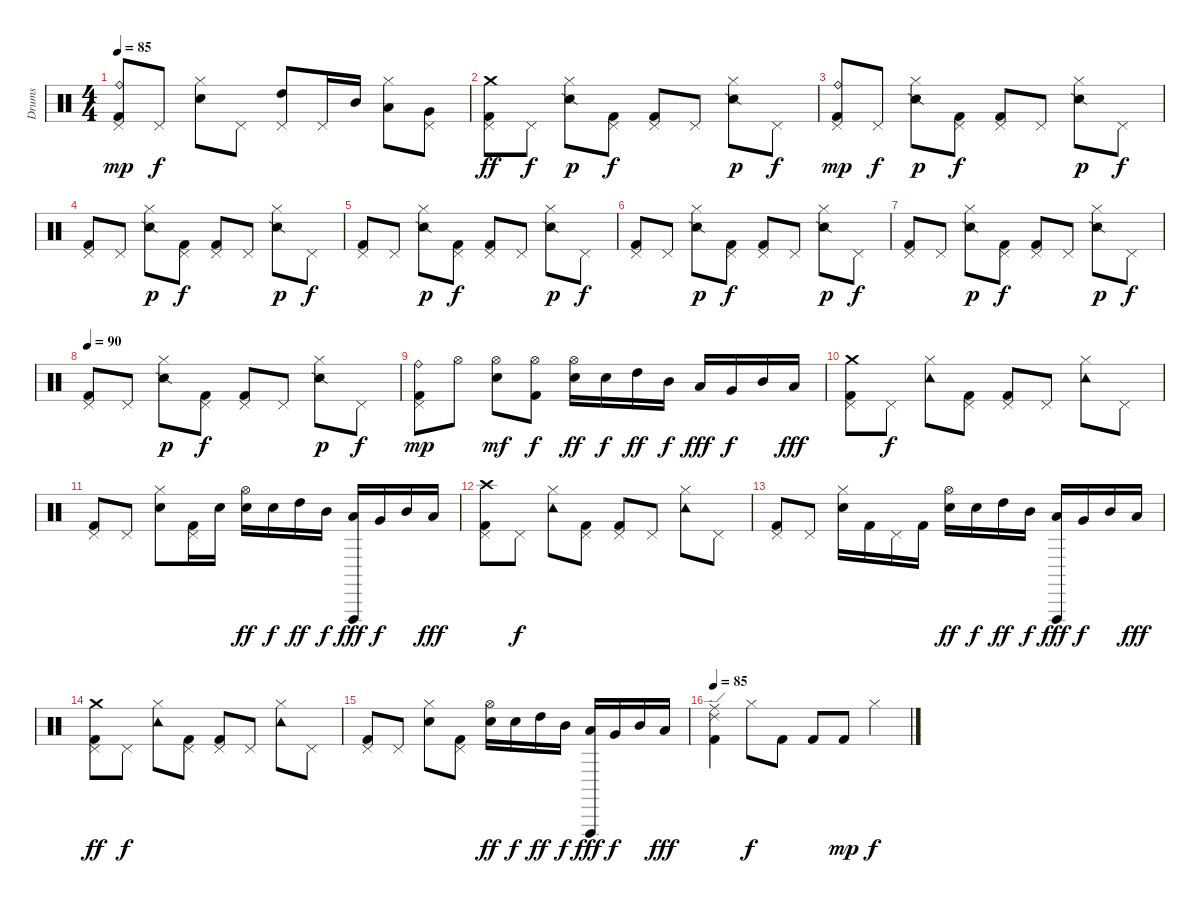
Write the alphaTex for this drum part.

\track ("Drums" "Drums") {instrument percussion}
\staff {score}
\articulation defaults
\ts (4 4)
\tempo 85
\clef neutral
\ks c
("Ride (bell)" "Pedal Hi-Hat (hit)" "Kick (hit) 2").8{dy mp} "Pedal Hi-Hat (hit)".8{dy f} ("Hi-Hat (closed)" "Electric Snare (hit)").8 "Pedal Hi-Hat (hit)".8 ("Pedal Hi-Hat (hit)" "High Tom (hit)").8 "Pedal Hi-Hat (hit)".16 "Mid Tom (hit)".16 ("Hi-Hat (closed)" "Low Tom (hit)").8 ("Pedal Hi-Hat (hit)" "Very Low Tom (hit)").8 |
("Crash medium (hit)" "Pedal Hi-Hat (hit)" "Kick (hit) 2").8{dy ff} "Pedal Hi-Hat (hit)".8{dy f} ("Hi-Hat (closed)" "Snare (side stick) 2").8{dy p} ("Pedal Hi-Hat (hit)" "Kick (hit) 2").8{dy f} ("Pedal Hi-Hat (hit)" "Kick (hit) 2").8 "Pedal Hi-Hat (hit)".8 ("Hi-Hat (closed)" "Snare (side stick) 2").8{dy p} "Pedal Hi-Hat (hit)".8{dy f} |
("Ride (bell)" "Pedal Hi-Hat (hit)" "Kick (hit) 2").8{dy mp} "Pedal Hi-Hat (hit)".8{dy f} ("Hi-Hat (closed)" "Snare (side stick) 2").8{dy p} ("Pedal Hi-Hat (hit)" "Kick (hit) 2").8{dy f} ("Pedal Hi-Hat (hit)" "Kick (hit) 2").8 "Pedal Hi-Hat (hit)".8 ("Hi-Hat (closed)" "Snare (side stick) 2").8{dy p} "Pedal Hi-Hat (hit)".8{dy f} |
("Pedal Hi-Hat (hit)" "Kick (hit) 2").8 "Pedal Hi-Hat (hit)".8 ("Hi-Hat (closed)" "Snare (side stick) 2").8{dy p} ("Pedal Hi-Hat (hit)" "Kick (hit) 2").8{dy f} ("Pedal Hi-Hat (hit)" "Kick (hit) 2").8 "Pedal Hi-Hat (hit)".8 ("Hi-Hat (closed)" "Snare (side stick) 2").8{dy p} "Pedal Hi-Hat (hit)".8{dy f} |
("Pedal Hi-Hat (hit)" "Kick (hit) 2").8 "Pedal Hi-Hat (hit)".8 ("Hi-Hat (closed)" "Snare (side stick) 2").8{dy p} ("Pedal Hi-Hat (hit)" "Kick (hit) 2").8{dy f} ("Pedal Hi-Hat (hit)" "Kick (hit) 2").8 "Pedal Hi-Hat (hit)".8 ("Hi-Hat (closed)" "Snare (side stick) 2").8{dy p} "Pedal Hi-Hat (hit)".8{dy f} |
("Pedal Hi-Hat (hit)" "Kick (hit) 2").8 "Pedal Hi-Hat (hit)".8 ("Hi-Hat (closed)" "Snare (side stick) 2").8{dy p} ("Pedal Hi-Hat (hit)" "Kick (hit) 2").8{dy f} ("Pedal Hi-Hat (hit)" "Kick (hit) 2").8 "Pedal Hi-Hat (hit)".8 ("Hi-Hat (closed)" "Snare (side stick) 2").8{dy p} "Pedal Hi-Hat (hit)".8{dy f} |
("Pedal Hi-Hat (hit)" "Kick (hit) 2").8 "Pedal Hi-Hat (hit)".8 ("Hi-Hat (closed)" "Snare (side stick) 2").8{dy p} ("Pedal Hi-Hat (hit)" "Kick (hit) 2").8{dy f} ("Pedal Hi-Hat (hit)" "Kick (hit) 2").8 "Pedal Hi-Hat (hit)".8 ("Hi-Hat (closed)" "Snare (side stick) 2").8{dy p} "Pedal Hi-Hat (hit)".8{dy f} |
\tempo 90
("Pedal Hi-Hat (hit)" "Kick (hit) 2").8 "Pedal Hi-Hat (hit)".8 ("Hi-Hat (closed)" "Snare (side stick) 2").8{dy p} ("Pedal Hi-Hat (hit)" "Kick (hit) 2").8{dy f} ("Pedal Hi-Hat (hit)" "Kick (hit) 2").8 "Pedal Hi-Hat (hit)".8 ("Hi-Hat (closed)" "Snare (side stick) 2").8{dy p} "Pedal Hi-Hat (hit)".8{dy f} |
("Ride (bell)" "Pedal Hi-Hat (hit)" "Kick (hit) 2").8{dy mp} "Hi-Hat (open)".8 ("Hi-Hat (open)" "Electric Snare (hit)").8{dy mf} ("Hi-Hat (open)" "Kick (hit) 2").8{dy f} ("Hi-Hat (open)" "Electric Snare (hit)").16{dy ff} "Electric Snare (hit)".16{dy f} "High Tom (hit)".16{dy ff} "Mid Tom (hit)".16{dy f} "Low Tom (hit)".16{dy fff} "Very Low Tom (hit)".16{dy f} "Mid Tom (hit)".16 "Low Tom (hit)".16{dy fff} |
("Crash medium (hit)" "Pedal Hi-Hat (hit)" "Kick (hit) 2").8 "Pedal Hi-Hat (hit)".8{dy f} ("Hi-Hat (closed)" "Tambourine (hit)").8 ("Pedal Hi-Hat (hit)" "Kick (hit) 2").8 ("Pedal Hi-Hat (hit)" "Kick (hit) 2").8 "Pedal Hi-Hat (hit)".8 ("Hi-Hat (closed)" "Tambourine (hit)").8 "Pedal Hi-Hat (hit)".8 |
("Pedal Hi-Hat (hit)" "Kick (hit) 2").8 "Pedal Hi-Hat (hit)".8 ("Hi-Hat (closed)" "Electric Snare (hit)").8 ("Pedal Hi-Hat (hit)" "Kick (hit) 2").16 "Electric Snare (hit)".16 ("Hi-Hat (open)" "Electric Snare (hit)").16{dy ff} "Electric Snare (hit)".16{dy f} "High Tom (hit)".16{dy ff} "Mid Tom (hit)".16{dy f} ("Vibraslap (hit)" "Low Tom (hit)").16{dy fff} "Very Low Tom (hit)".16{dy f} "Mid Tom (hit)".16 "Low Tom (hit)".16{dy fff} |
("Crash high (hit)" "Pedal Hi-Hat (hit)" "Kick (hit) 2").8 "Pedal Hi-Hat (hit)".8{dy f} ("Hi-Hat (closed)" "Tambourine (hit)").8 ("Pedal Hi-Hat (hit)" "Kick (hit) 2").8 ("Pedal Hi-Hat (hit)" "Kick (hit) 2").8 "Pedal Hi-Hat (hit)".8 ("Hi-Hat (closed)" "Tambourine (hit)").8 "Pedal Hi-Hat (hit)".8 |
("Pedal Hi-Hat (hit)" "Kick (hit) 2").8 "Pedal Hi-Hat (hit)".8 ("Hi-Hat (closed)" "Electric Snare (hit)").16 "Kick (hit) 2".16 "Pedal Hi-Hat (hit)".16 "Kick (hit) 2".16 ("Hi-Hat (open)" "Electric Snare (hit)").16{dy ff} "Electric Snare (hit)".16{dy f} "High Tom (hit)".16{dy ff} "Mid Tom (hit)".16{dy f} ("Vibraslap (hit)" "Low Tom (hit)").16{dy fff} "Very Low Tom (hit)".16{dy f} "Mid Tom (hit)".16 "Low Tom (hit)".16{dy fff} |
("Crash medium (hit)" "Pedal Hi-Hat (hit)" "Kick (hit) 2").8{dy ff} "Pedal Hi-Hat (hit)".8{dy f} ("Hi-Hat (closed)" "Tambourine (hit)").8 ("Pedal Hi-Hat (hit)" "Kick (hit) 2").8 ("Pedal Hi-Hat (hit)" "Kick (hit) 2").8 "Pedal Hi-Hat (hit)".8 ("Hi-Hat (closed)" "Tambourine (hit)").8 "Pedal Hi-Hat (hit)".8 |
("Pedal Hi-Hat (hit)" "Kick (hit) 2").8 "Pedal Hi-Hat (hit)".8 ("Hi-Hat (closed)" "Electric Snare (hit)").8 ("Pedal Hi-Hat (hit)" "Kick (hit) 2").8 ("Hi-Hat (open)" "Electric Snare (hit)").16{dy ff} "Electric Snare (hit)".16{dy f} "High Tom (hit)".16{dy ff} "Mid Tom (hit)".16{dy f} ("Vibraslap (hit)" "Low Tom (hit)").16{dy fff} "Very Low Tom (hit)".16{dy f} "Mid Tom (hit)".16 "Low Tom (hit)".16{dy fff} |
\tempo 85
("Ride (edge) 2" "Ride (middle)" "Kick (hit) 2").4 "Hi-Hat (closed)".8{dy f} "Kick (hit) 2".8 "Kick (hit) 2".8 "Kick (hit) 2".8{dy mp} "Hi-Hat (closed)".4{dy f}
